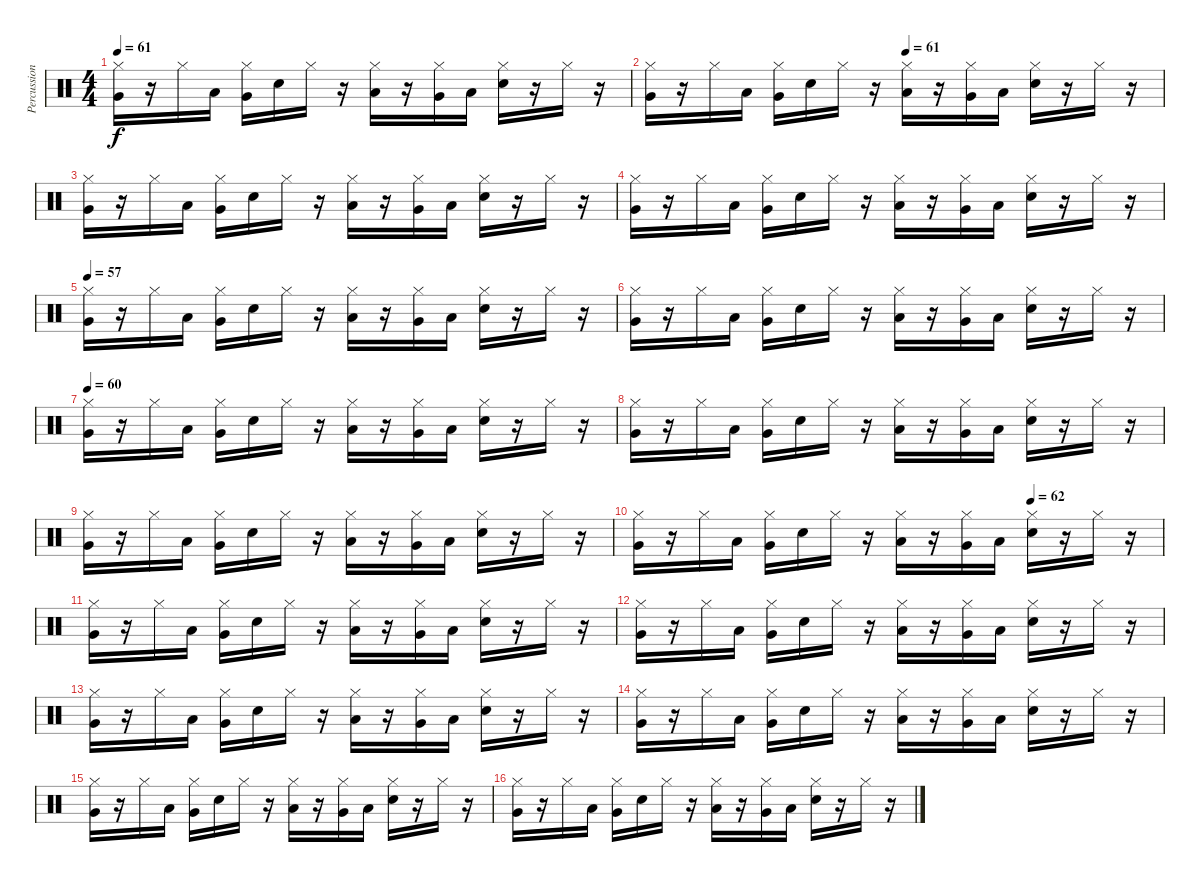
\track ("Percussion" "Percussion") {instrument percussion}
\staff {score}
\articulation defaults
\ts (4 4)
\tempo 61
\clef neutral
\ks c
("Hi-Hat (closed)" "Very Low Tom (hit)").16{dy f} r.16 "Hi-Hat (closed)".16 "Low Floor Tom (hit)".16 ("Hi-Hat (closed)" "Very Low Tom (hit)").16 "Electric Snare (hit)".16 "Hi-Hat (closed)".16 r.16 ("Hi-Hat (closed)" "Low Floor Tom (hit)").16 r.16 ("Hi-Hat (closed)" "Very Low Tom (hit)").16 "Low Floor Tom (hit)".16 ("Hi-Hat (closed)" "Electric Snare (hit)").16 r.16 "Hi-Hat (closed)".16 r.16 |
\tempo (61 0.5)
("Hi-Hat (closed)" "Very Low Tom (hit)").16 r.16 "Hi-Hat (closed)".16 "Low Floor Tom (hit)".16 ("Hi-Hat (closed)" "Very Low Tom (hit)").16 "Electric Snare (hit)".16 "Hi-Hat (closed)".16 r.16 ("Hi-Hat (closed)" "Low Floor Tom (hit)").16 r.16 ("Hi-Hat (closed)" "Very Low Tom (hit)").16 "Low Floor Tom (hit)".16 ("Hi-Hat (closed)" "Electric Snare (hit)").16 r.16 "Hi-Hat (closed)".16 r.16 |
("Hi-Hat (closed)" "Very Low Tom (hit)").16 r.16 "Hi-Hat (closed)".16 "Low Floor Tom (hit)".16 ("Hi-Hat (closed)" "Very Low Tom (hit)").16 "Electric Snare (hit)".16 "Hi-Hat (closed)".16 r.16 ("Hi-Hat (closed)" "Low Floor Tom (hit)").16 r.16 ("Hi-Hat (closed)" "Very Low Tom (hit)").16 "Low Floor Tom (hit)".16 ("Hi-Hat (closed)" "Electric Snare (hit)").16 r.16 "Hi-Hat (closed)".16 r.16 |
("Hi-Hat (closed)" "Very Low Tom (hit)").16 r.16 "Hi-Hat (closed)".16 "Low Floor Tom (hit)".16 ("Hi-Hat (closed)" "Very Low Tom (hit)").16 "Electric Snare (hit)".16 "Hi-Hat (closed)".16 r.16 ("Hi-Hat (closed)" "Low Floor Tom (hit)").16 r.16 ("Hi-Hat (closed)" "Very Low Tom (hit)").16 "Low Floor Tom (hit)".16 ("Hi-Hat (closed)" "Electric Snare (hit)").16 r.16 "Hi-Hat (closed)".16 r.16 |
\tempo 57
("Hi-Hat (closed)" "Very Low Tom (hit)").16 r.16 "Hi-Hat (closed)".16 "Low Floor Tom (hit)".16 ("Hi-Hat (closed)" "Very Low Tom (hit)").16 "Electric Snare (hit)".16 "Hi-Hat (closed)".16 r.16 ("Hi-Hat (closed)" "Low Floor Tom (hit)").16 r.16 ("Hi-Hat (closed)" "Very Low Tom (hit)").16 "Low Floor Tom (hit)".16 ("Hi-Hat (closed)" "Electric Snare (hit)").16 r.16 "Hi-Hat (closed)".16 r.16 |
("Hi-Hat (closed)" "Very Low Tom (hit)").16 r.16 "Hi-Hat (closed)".16 "Low Floor Tom (hit)".16 ("Hi-Hat (closed)" "Very Low Tom (hit)").16 "Electric Snare (hit)".16 "Hi-Hat (closed)".16 r.16 ("Hi-Hat (closed)" "Low Floor Tom (hit)").16 r.16 ("Hi-Hat (closed)" "Very Low Tom (hit)").16 "Low Floor Tom (hit)".16 ("Hi-Hat (closed)" "Electric Snare (hit)").16 r.16 "Hi-Hat (closed)".16 r.16 |
\tempo 60
("Hi-Hat (closed)" "Very Low Tom (hit)").16 r.16 "Hi-Hat (closed)".16 "Low Floor Tom (hit)".16 ("Hi-Hat (closed)" "Very Low Tom (hit)").16 "Electric Snare (hit)".16 "Hi-Hat (closed)".16 r.16 ("Hi-Hat (closed)" "Low Floor Tom (hit)").16 r.16 ("Hi-Hat (closed)" "Very Low Tom (hit)").16 "Low Floor Tom (hit)".16 ("Hi-Hat (closed)" "Electric Snare (hit)").16 r.16 "Hi-Hat (closed)".16 r.16 |
("Hi-Hat (closed)" "Very Low Tom (hit)").16 r.16 "Hi-Hat (closed)".16 "Low Floor Tom (hit)".16 ("Hi-Hat (closed)" "Very Low Tom (hit)").16 "Electric Snare (hit)".16 "Hi-Hat (closed)".16 r.16 ("Hi-Hat (closed)" "Low Floor Tom (hit)").16 r.16 ("Hi-Hat (closed)" "Very Low Tom (hit)").16 "Low Floor Tom (hit)".16 ("Hi-Hat (closed)" "Electric Snare (hit)").16 r.16 "Hi-Hat (closed)".16 r.16 |
("Hi-Hat (closed)" "Very Low Tom (hit)").16 r.16 "Hi-Hat (closed)".16 "Low Floor Tom (hit)".16 ("Hi-Hat (closed)" "Very Low Tom (hit)").16 "Electric Snare (hit)".16 "Hi-Hat (closed)".16 r.16 ("Hi-Hat (closed)" "Low Floor Tom (hit)").16 r.16 ("Hi-Hat (closed)" "Very Low Tom (hit)").16 "Low Floor Tom (hit)".16 ("Hi-Hat (closed)" "Electric Snare (hit)").16 r.16 "Hi-Hat (closed)".16 r.16 |
\tempo (62 0.75)
("Hi-Hat (closed)" "Very Low Tom (hit)").16 r.16 "Hi-Hat (closed)".16 "Low Floor Tom (hit)".16 ("Hi-Hat (closed)" "Very Low Tom (hit)").16 "Electric Snare (hit)".16 "Hi-Hat (closed)".16 r.16 ("Hi-Hat (closed)" "Low Floor Tom (hit)").16 r.16 ("Hi-Hat (closed)" "Very Low Tom (hit)").16 "Low Floor Tom (hit)".16 ("Hi-Hat (closed)" "Electric Snare (hit)").16 r.16 "Hi-Hat (closed)".16 r.16 |
("Hi-Hat (closed)" "Very Low Tom (hit)").16 r.16 "Hi-Hat (closed)".16 "Low Floor Tom (hit)".16 ("Hi-Hat (closed)" "Very Low Tom (hit)").16 "Electric Snare (hit)".16 "Hi-Hat (closed)".16 r.16 ("Hi-Hat (closed)" "Low Floor Tom (hit)").16 r.16 ("Hi-Hat (closed)" "Very Low Tom (hit)").16 "Low Floor Tom (hit)".16 ("Hi-Hat (closed)" "Electric Snare (hit)").16 r.16 "Hi-Hat (closed)".16 r.16 |
("Hi-Hat (closed)" "Very Low Tom (hit)").16 r.16 "Hi-Hat (closed)".16 "Low Floor Tom (hit)".16 ("Hi-Hat (closed)" "Very Low Tom (hit)").16 "Electric Snare (hit)".16 "Hi-Hat (closed)".16 r.16 ("Hi-Hat (closed)" "Low Floor Tom (hit)").16 r.16 ("Hi-Hat (closed)" "Very Low Tom (hit)").16 "Low Floor Tom (hit)".16 ("Hi-Hat (closed)" "Electric Snare (hit)").16 r.16 "Hi-Hat (closed)".16 r.16 |
("Hi-Hat (closed)" "Very Low Tom (hit)").16 r.16 "Hi-Hat (closed)".16 "Low Floor Tom (hit)".16 ("Hi-Hat (closed)" "Very Low Tom (hit)").16 "Electric Snare (hit)".16 "Hi-Hat (closed)".16 r.16 ("Hi-Hat (closed)" "Low Floor Tom (hit)").16 r.16 ("Hi-Hat (closed)" "Very Low Tom (hit)").16 "Low Floor Tom (hit)".16 ("Hi-Hat (closed)" "Electric Snare (hit)").16 r.16 "Hi-Hat (closed)".16 r.16 |
("Hi-Hat (closed)" "Very Low Tom (hit)").16 r.16 "Hi-Hat (closed)".16 "Low Floor Tom (hit)".16 ("Hi-Hat (closed)" "Very Low Tom (hit)").16 "Electric Snare (hit)".16 "Hi-Hat (closed)".16 r.16 ("Hi-Hat (closed)" "Low Floor Tom (hit)").16 r.16 ("Hi-Hat (closed)" "Very Low Tom (hit)").16 "Low Floor Tom (hit)".16 ("Hi-Hat (closed)" "Electric Snare (hit)").16 r.16 "Hi-Hat (closed)".16 r.16 |
("Hi-Hat (closed)" "Very Low Tom (hit)").16 r.16 "Hi-Hat (closed)".16 "Low Floor Tom (hit)".16 ("Hi-Hat (closed)" "Very Low Tom (hit)").16 "Electric Snare (hit)".16 "Hi-Hat (closed)".16 r.16 ("Hi-Hat (closed)" "Low Floor Tom (hit)").16 r.16 ("Hi-Hat (closed)" "Very Low Tom (hit)").16 "Low Floor Tom (hit)".16 ("Hi-Hat (closed)" "Electric Snare (hit)").16 r.16 "Hi-Hat (closed)".16 r.16 |
("Hi-Hat (closed)" "Very Low Tom (hit)").16 r.16 "Hi-Hat (closed)".16 "Low Floor Tom (hit)".16 ("Hi-Hat (closed)" "Very Low Tom (hit)").16 "Electric Snare (hit)".16 "Hi-Hat (closed)".16 r.16 ("Hi-Hat (closed)" "Low Floor Tom (hit)").16 r.16 ("Hi-Hat (closed)" "Very Low Tom (hit)").16 "Low Floor Tom (hit)".16 ("Hi-Hat (closed)" "Electric Snare (hit)").16 r.16 "Hi-Hat (closed)".16 r.16
